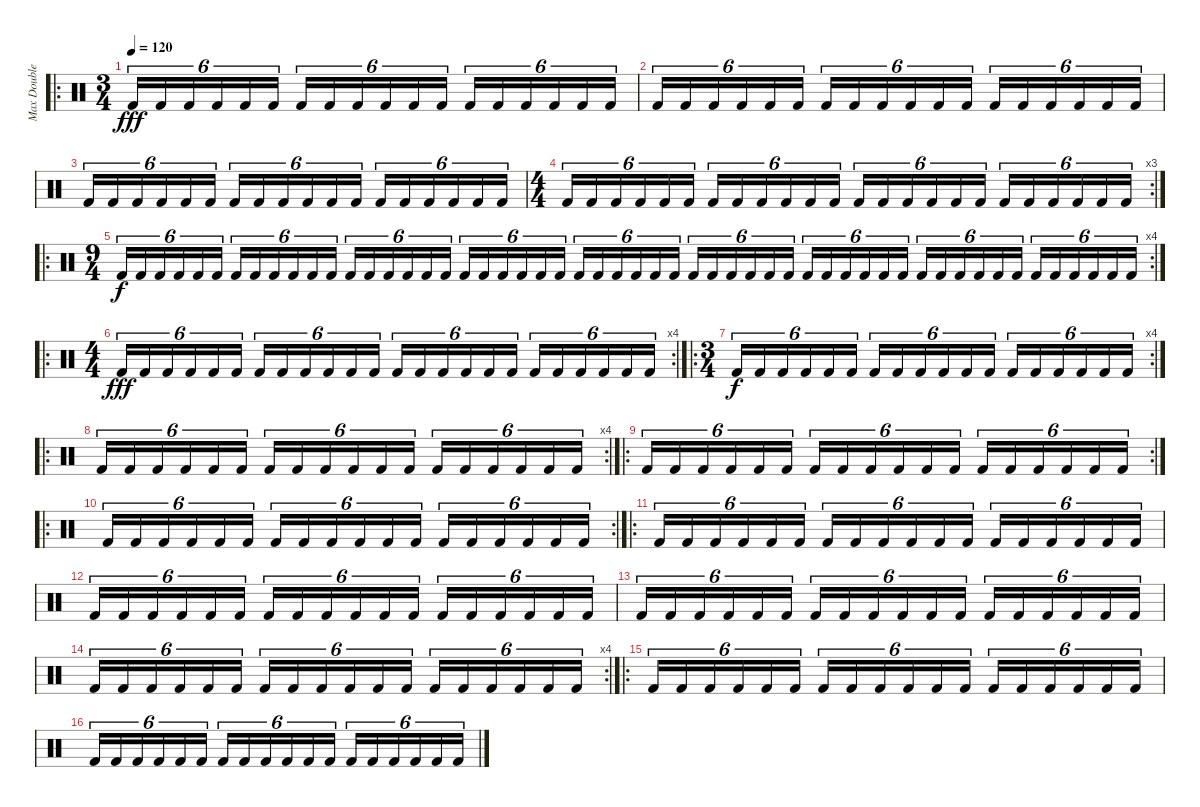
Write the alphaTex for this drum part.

\track ("Max Double Pedal" "Max Double") {instrument percussion}
\staff {score}
\articulation defaults
\ro
\ts (3 4)
\tempo 120
\clef neutral
\ks c "Kick (hit) 2".16{tu (6 4) dy fff} "Kick (hit) 2".16{tu (6 4)} "Kick (hit) 2".16{tu (6 4)} "Kick (hit) 2".16{tu (6 4)} "Kick (hit) 2".16{tu (6 4)} "Kick (hit) 2".16{tu (6 4)} "Kick (hit) 2".16{tu (6 4)} "Kick (hit) 2".16{tu (6 4)} "Kick (hit) 2".16{tu (6 4)} "Kick (hit) 2".16{tu (6 4)} "Kick (hit) 2".16{tu (6 4)} "Kick (hit) 2".16{tu (6 4)} "Kick (hit) 2".16{tu (6 4)} "Kick (hit) 2".16{tu (6 4)} "Kick (hit) 2".16{tu (6 4)} "Kick (hit) 2".16{tu (6 4)} "Kick (hit) 2".16{tu (6 4)} "Kick (hit) 2".16{tu (6 4)}
|
"Kick (hit) 2".16{tu (6 4)} "Kick (hit) 2".16{tu (6 4)} "Kick (hit) 2".16{tu (6 4)} "Kick (hit) 2".16{tu (6 4)} "Kick (hit) 2".16{tu (6 4)} "Kick (hit) 2".16{tu (6 4)} "Kick (hit) 2".16{tu (6 4)} "Kick (hit) 2".16{tu (6 4)} "Kick (hit) 2".16{tu (6 4)} "Kick (hit) 2".16{tu (6 4)} "Kick (hit) 2".16{tu (6 4)} "Kick (hit) 2".16{tu (6 4)} "Kick (hit) 2".16{tu (6 4)} "Kick (hit) 2".16{tu (6 4)} "Kick (hit) 2".16{tu (6 4)} "Kick (hit) 2".16{tu (6 4)} "Kick (hit) 2".16{tu (6 4)} "Kick (hit) 2".16{tu (6 4)} |
"Kick (hit) 2".16{tu (6 4)} "Kick (hit) 2".16{tu (6 4)} "Kick (hit) 2".16{tu (6 4)} "Kick (hit) 2".16{tu (6 4)} "Kick (hit) 2".16{tu (6 4)} "Kick (hit) 2".16{tu (6 4)} "Kick (hit) 2".16{tu (6 4)} "Kick (hit) 2".16{tu (6 4)} "Kick (hit) 2".16{tu (6 4)} "Kick (hit) 2".16{tu (6 4)} "Kick (hit) 2".16{tu (6 4)} "Kick (hit) 2".16{tu (6 4)} "Kick (hit) 2".16{tu (6 4)} "Kick (hit) 2".16{tu (6 4)} "Kick (hit) 2".16{tu (6 4)} "Kick (hit) 2".16{tu (6 4)} "Kick (hit) 2".16{tu (6 4)} "Kick (hit) 2".16{tu (6 4)} |
\rc 3
\ts (4 4)
"Kick (hit) 2".16{tu (6 4)} "Kick (hit) 2".16{tu (6 4)} "Kick (hit) 2".16{tu (6 4)} "Kick (hit) 2".16{tu (6 4)} "Kick (hit) 2".16{tu (6 4)} "Kick (hit) 2".16{tu (6 4)} "Kick (hit) 2".16{tu (6 4)} "Kick (hit) 2".16{tu (6 4)} "Kick (hit) 2".16{tu (6 4)} "Kick (hit) 2".16{tu (6 4)} "Kick (hit) 2".16{tu (6 4)} "Kick (hit) 2".16{tu (6 4)} "Kick (hit) 2".16{tu (6 4)} "Kick (hit) 2".16{tu (6 4)} "Kick (hit) 2".16{tu (6 4)} "Kick (hit) 2".16{tu (6 4)} "Kick (hit) 2".16{tu (6 4)} "Kick (hit) 2".16{tu (6 4)} "Kick (hit) 2".16{tu (6 4)} "Kick (hit) 2".16{tu (6 4)} "Kick (hit) 2".16{tu (6 4)} "Kick (hit) 2".16{tu (6 4)} "Kick (hit) 2".16{tu (6 4)} "Kick (hit) 2".16{tu (6 4)} |
\ro
\rc 4
\ts (9 4)
"Kick (hit) 2".16{tu (6 4) dy f} "Kick (hit) 2".16{tu (6 4)} "Kick (hit) 2".16{tu (6 4)} "Kick (hit) 2".16{tu (6 4)} "Kick (hit) 2".16{tu (6 4)} "Kick (hit) 2".16{tu (6 4)} "Kick (hit) 2".16{tu (6 4)} "Kick (hit) 2".16{tu (6 4)} "Kick (hit) 2".16{tu (6 4)} "Kick (hit) 2".16{tu (6 4)} "Kick (hit) 2".16{tu (6 4)} "Kick (hit) 2".16{tu (6 4)} "Kick (hit) 2".16{tu (6 4)} "Kick (hit) 2".16{tu (6 4)} "Kick (hit) 2".16{tu (6 4)} "Kick (hit) 2".16{tu (6 4)} "Kick (hit) 2".16{tu (6 4)} "Kick (hit) 2".16{tu (6 4)} "Kick (hit) 2".16{tu (6 4)} "Kick (hit) 2".16{tu (6 4)} "Kick (hit) 2".16{tu (6 4)} "Kick (hit) 2".16{tu (6 4)} "Kick (hit) 2".16{tu (6 4)} "Kick (hit) 2".16{tu (6 4)} "Kick (hit) 2".16{tu (6 4)} "Kick (hit) 2".16{tu (6 4)} "Kick (hit) 2".16{tu (6 4)} "Kick (hit) 2".16{tu (6 4)} "Kick (hit) 2".16{tu (6 4)} "Kick (hit) 2".16{tu (6 4)} "Kick (hit) 2".16{tu (6 4)} "Kick (hit) 2".16{tu (6 4)} "Kick (hit) 2".16{tu (6 4)} "Kick (hit) 2".16{tu (6 4)} "Kick (hit) 2".16{tu (6 4)} "Kick (hit) 2".16{tu (6 4)} "Kick (hit) 2".16{tu (6 4)} "Kick (hit) 2".16{tu (6 4)} "Kick (hit) 2".16{tu (6 4)} "Kick (hit) 2".16{tu (6 4)} "Kick (hit) 2".16{tu (6 4)} "Kick (hit) 2".16{tu (6 4)} "Kick (hit) 2".16{tu (6 4)} "Kick (hit) 2".16{tu (6 4)} "Kick (hit) 2".16{tu (6 4)} "Kick (hit) 2".16{tu (6 4)} "Kick (hit) 2".16{tu (6 4)} "Kick (hit) 2".16{tu (6 4)} "Kick (hit) 2".16{tu (6 4)} "Kick (hit) 2".16{tu (6 4)} "Kick (hit) 2".16{tu (6 4)} "Kick (hit) 2".16{tu (6 4)} "Kick (hit) 2".16{tu (6 4)} "Kick (hit) 2".16{tu (6 4)} |
\ro
\rc 4
\ts (4 4)
"Kick (hit) 2".16{tu (6 4) dy fff} "Kick (hit) 2".16{tu (6 4)} "Kick (hit) 2".16{tu (6 4)} "Kick (hit) 2".16{tu (6 4)} "Kick (hit) 2".16{tu (6 4)} "Kick (hit) 2".16{tu (6 4)} "Kick (hit) 2".16{tu (6 4)} "Kick (hit) 2".16{tu (6 4)} "Kick (hit) 2".16{tu (6 4)} "Kick (hit) 2".16{tu (6 4)} "Kick (hit) 2".16{tu (6 4)} "Kick (hit) 2".16{tu (6 4)} "Kick (hit) 2".16{tu (6 4)} "Kick (hit) 2".16{tu (6 4)} "Kick (hit) 2".16{tu (6 4)} "Kick (hit) 2".16{tu (6 4)} "Kick (hit) 2".16{tu (6 4)} "Kick (hit) 2".16{tu (6 4)} "Kick (hit) 2".16{tu (6 4)} "Kick (hit) 2".16{tu (6 4)} "Kick (hit) 2".16{tu (6 4)} "Kick (hit) 2".16{tu (6 4)} "Kick (hit) 2".16{tu (6 4)} "Kick (hit) 2".16{tu (6 4)} |
\ro
\rc 4
\ts (3 4)
"Kick (hit) 2".16{tu (6 4) dy f} "Kick (hit) 2".16{tu (6 4)} "Kick (hit) 2".16{tu (6 4)} "Kick (hit) 2".16{tu (6 4)} "Kick (hit) 2".16{tu (6 4)} "Kick (hit) 2".16{tu (6 4)} "Kick (hit) 2".16{tu (6 4)} "Kick (hit) 2".16{tu (6 4)} "Kick (hit) 2".16{tu (6 4)} "Kick (hit) 2".16{tu (6 4)} "Kick (hit) 2".16{tu (6 4)} "Kick (hit) 2".16{tu (6 4)} "Kick (hit) 2".16{tu (6 4)} "Kick (hit) 2".16{tu (6 4)} "Kick (hit) 2".16{tu (6 4)} "Kick (hit) 2".16{tu (6 4)} "Kick (hit) 2".16{tu (6 4)} "Kick (hit) 2".16{tu (6 4)} |
\ro
\rc 4 "Kick (hit) 2".16{tu (6 4)} "Kick (hit) 2".16{tu (6 4)} "Kick (hit) 2".16{tu (6 4)} "Kick (hit) 2".16{tu (6 4)} "Kick (hit) 2".16{tu (6 4)} "Kick (hit) 2".16{tu (6 4)} "Kick (hit) 2".16{tu (6 4)} "Kick (hit) 2".16{tu (6 4)} "Kick (hit) 2".16{tu (6 4)} "Kick (hit) 2".16{tu (6 4)} "Kick (hit) 2".16{tu (6 4)} "Kick (hit) 2".16{tu (6 4)} "Kick (hit) 2".16{tu (6 4)} "Kick (hit) 2".16{tu (6 4)} "Kick (hit) 2".16{tu (6 4)} "Kick (hit) 2".16{tu (6 4)} "Kick (hit) 2".16{tu (6 4)} "Kick (hit) 2".16{tu (6 4)}
|
\ro
\rc 2 "Kick (hit) 2".16{tu (6 4)} "Kick (hit) 2".16{tu (6 4)} "Kick (hit) 2".16{tu (6 4)} "Kick (hit) 2".16{tu (6 4)} "Kick (hit) 2".16{tu (6 4)} "Kick (hit) 2".16{tu (6 4)} "Kick (hit) 2".16{tu (6 4)} "Kick (hit) 2".16{tu (6 4)} "Kick (hit) 2".16{tu (6 4)} "Kick (hit) 2".16{tu (6 4)} "Kick (hit) 2".16{tu (6 4)} "Kick (hit) 2".16{tu (6 4)} "Kick (hit) 2".16{tu (6 4)} "Kick (hit) 2".16{tu (6 4)} "Kick (hit) 2".16{tu (6 4)} "Kick (hit) 2".16{tu (6 4)} "Kick (hit) 2".16{tu (6 4)} "Kick (hit) 2".16{tu (6 4)}
|
\ro
\rc 2 "Kick (hit) 2".16{tu (6 4)} "Kick (hit) 2".16{tu (6 4)} "Kick (hit) 2".16{tu (6 4)} "Kick (hit) 2".16{tu (6 4)} "Kick (hit) 2".16{tu (6 4)} "Kick (hit) 2".16{tu (6 4)} "Kick (hit) 2".16{tu (6 4)} "Kick (hit) 2".16{tu (6 4)} "Kick (hit) 2".16{tu (6 4)} "Kick (hit) 2".16{tu (6 4)} "Kick (hit) 2".16{tu (6 4)} "Kick (hit) 2".16{tu (6 4)} "Kick (hit) 2".16{tu (6 4)} "Kick (hit) 2".16{tu (6 4)} "Kick (hit) 2".16{tu (6 4)} "Kick (hit) 2".16{tu (6 4)} "Kick (hit) 2".16{tu (6 4)} "Kick (hit) 2".16{tu (6 4)}
|
\ro "Kick (hit) 2".16{tu (6 4)} "Kick (hit) 2".16{tu (6 4)} "Kick (hit) 2".16{tu (6 4)} "Kick (hit) 2".16{tu (6 4)} "Kick (hit) 2".16{tu (6 4)} "Kick (hit) 2".16{tu (6 4)} "Kick (hit) 2".16{tu (6 4)} "Kick (hit) 2".16{tu (6 4)} "Kick (hit) 2".16{tu (6 4)} "Kick (hit) 2".16{tu (6 4)} "Kick (hit) 2".16{tu (6 4)} "Kick (hit) 2".16{tu (6 4)} "Kick (hit) 2".16{tu (6 4)} "Kick (hit) 2".16{tu (6 4)} "Kick (hit) 2".16{tu (6 4)} "Kick (hit) 2".16{tu (6 4)} "Kick (hit) 2".16{tu (6 4)} "Kick (hit) 2".16{tu (6 4)}
|
"Kick (hit) 2".16{tu (6 4)} "Kick (hit) 2".16{tu (6 4)} "Kick (hit) 2".16{tu (6 4)} "Kick (hit) 2".16{tu (6 4)} "Kick (hit) 2".16{tu (6 4)} "Kick (hit) 2".16{tu (6 4)} "Kick (hit) 2".16{tu (6 4)} "Kick (hit) 2".16{tu (6 4)} "Kick (hit) 2".16{tu (6 4)} "Kick (hit) 2".16{tu (6 4)} "Kick (hit) 2".16{tu (6 4)} "Kick (hit) 2".16{tu (6 4)} "Kick (hit) 2".16{tu (6 4)} "Kick (hit) 2".16{tu (6 4)} "Kick (hit) 2".16{tu (6 4)} "Kick (hit) 2".16{tu (6 4)} "Kick (hit) 2".16{tu (6 4)} "Kick (hit) 2".16{tu (6 4)} |
"Kick (hit) 2".16{tu (6 4)} "Kick (hit) 2".16{tu (6 4)} "Kick (hit) 2".16{tu (6 4)} "Kick (hit) 2".16{tu (6 4)} "Kick (hit) 2".16{tu (6 4)} "Kick (hit) 2".16{tu (6 4)} "Kick (hit) 2".16{tu (6 4)} "Kick (hit) 2".16{tu (6 4)} "Kick (hit) 2".16{tu (6 4)} "Kick (hit) 2".16{tu (6 4)} "Kick (hit) 2".16{tu (6 4)} "Kick (hit) 2".16{tu (6 4)} "Kick (hit) 2".16{tu (6 4)} "Kick (hit) 2".16{tu (6 4)} "Kick (hit) 2".16{tu (6 4)} "Kick (hit) 2".16{tu (6 4)} "Kick (hit) 2".16{tu (6 4)} "Kick (hit) 2".16{tu (6 4)} |
\rc 4 "Kick (hit) 2".16{tu (6 4)} "Kick (hit) 2".16{tu (6 4)} "Kick (hit) 2".16{tu (6 4)} "Kick (hit) 2".16{tu (6 4)} "Kick (hit) 2".16{tu (6 4)} "Kick (hit) 2".16{tu (6 4)} "Kick (hit) 2".16{tu (6 4)} "Kick (hit) 2".16{tu (6 4)} "Kick (hit) 2".16{tu (6 4)} "Kick (hit) 2".16{tu (6 4)} "Kick (hit) 2".16{tu (6 4)} "Kick (hit) 2".16{tu (6 4)} "Kick (hit) 2".16{tu (6 4)} "Kick (hit) 2".16{tu (6 4)} "Kick (hit) 2".16{tu (6 4)} "Kick (hit) 2".16{tu (6 4)} "Kick (hit) 2".16{tu (6 4)} "Kick (hit) 2".16{tu (6 4)}
|
\ro "Kick (hit) 2".16{tu (6 4)} "Kick (hit) 2".16{tu (6 4)} "Kick (hit) 2".16{tu (6 4)} "Kick (hit) 2".16{tu (6 4)} "Kick (hit) 2".16{tu (6 4)} "Kick (hit) 2".16{tu (6 4)} "Kick (hit) 2".16{tu (6 4)} "Kick (hit) 2".16{tu (6 4)} "Kick (hit) 2".16{tu (6 4)} "Kick (hit) 2".16{tu (6 4)} "Kick (hit) 2".16{tu (6 4)} "Kick (hit) 2".16{tu (6 4)} "Kick (hit) 2".16{tu (6 4)} "Kick (hit) 2".16{tu (6 4)} "Kick (hit) 2".16{tu (6 4)} "Kick (hit) 2".16{tu (6 4)} "Kick (hit) 2".16{tu (6 4)} "Kick (hit) 2".16{tu (6 4)}
|
"Kick (hit) 2".16{tu (6 4)} "Kick (hit) 2".16{tu (6 4)} "Kick (hit) 2".16{tu (6 4)} "Kick (hit) 2".16{tu (6 4)} "Kick (hit) 2".16{tu (6 4)} "Kick (hit) 2".16{tu (6 4)} "Kick (hit) 2".16{tu (6 4)} "Kick (hit) 2".16{tu (6 4)} "Kick (hit) 2".16{tu (6 4)} "Kick (hit) 2".16{tu (6 4)} "Kick (hit) 2".16{tu (6 4)} "Kick (hit) 2".16{tu (6 4)} "Kick (hit) 2".16{tu (6 4)} "Kick (hit) 2".16{tu (6 4)} "Kick (hit) 2".16{tu (6 4)} "Kick (hit) 2".16{tu (6 4)} "Kick (hit) 2".16{tu (6 4)} "Kick (hit) 2".16{tu (6 4)}
